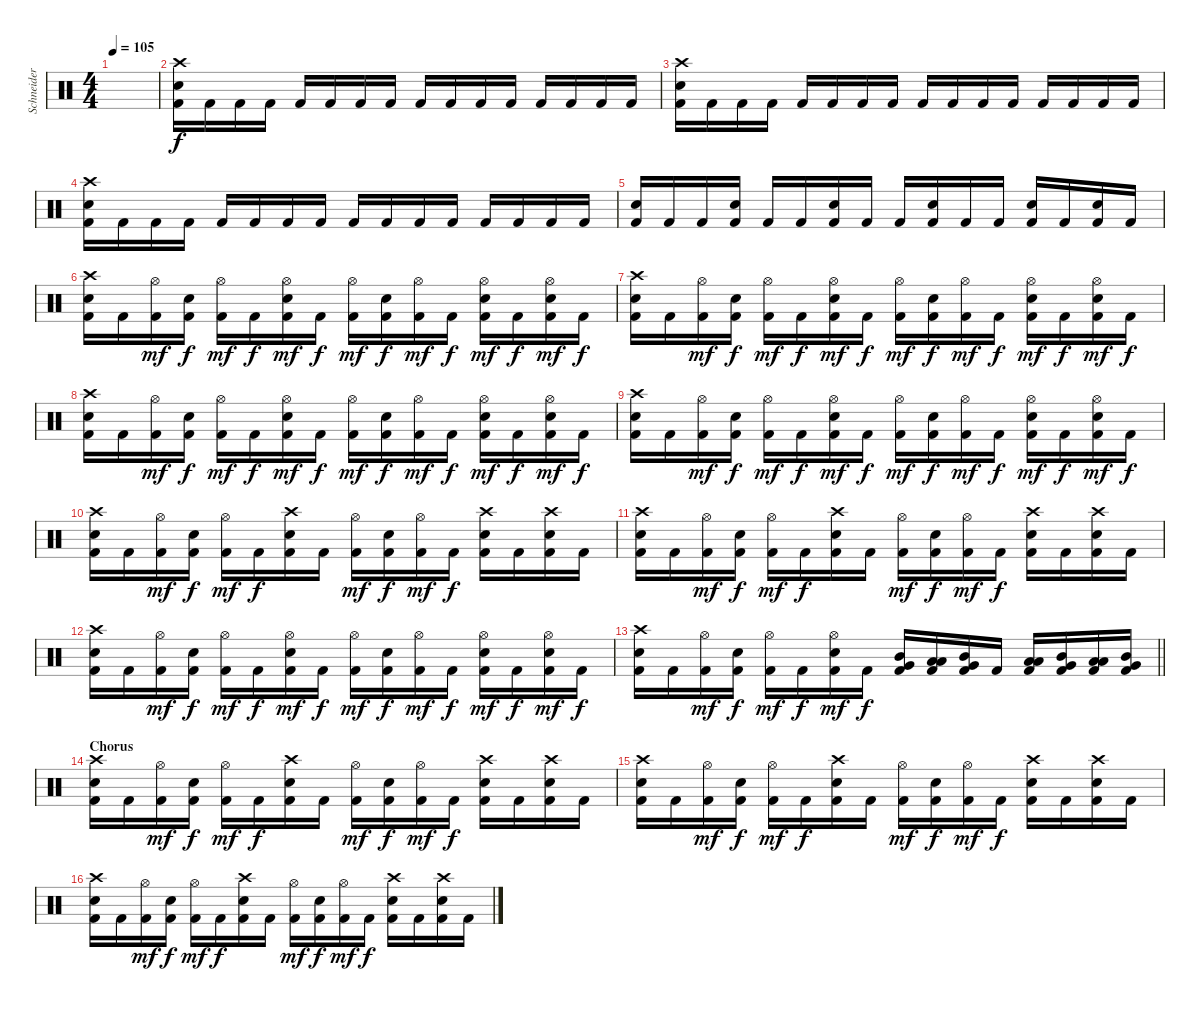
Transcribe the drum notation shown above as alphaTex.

\track ("Schneider" "Schneider") {instrument percussion}
\staff {score}
\articulation defaults
\ts (4 4)
\tempo 105
\clef neutral
\ks c
|
("Crash high (hit)" "Kick (hit) 2" "Electric Snare (hit)").16 "Kick (hit) 2".16 "Kick (hit) 2".16 "Kick (hit) 2".16 "Kick (hit) 2".16 "Kick (hit) 2".16 "Kick (hit) 2".16 "Kick (hit) 2".16 "Kick (hit) 2".16 "Kick (hit) 2".16 "Kick (hit) 2".16 "Kick (hit) 2".16 "Kick (hit) 2".16 "Kick (hit) 2".16 "Kick (hit) 2".16 "Kick (hit) 2".16 |
("Crash high (hit)" "Kick (hit) 2" "Electric Snare (hit)").16 "Kick (hit) 2".16 "Kick (hit) 2".16 "Kick (hit) 2".16 "Kick (hit) 2".16 "Kick (hit) 2".16 "Kick (hit) 2".16 "Kick (hit) 2".16 "Kick (hit) 2".16 "Kick (hit) 2".16 "Kick (hit) 2".16 "Kick (hit) 2".16 "Kick (hit) 2".16 "Kick (hit) 2".16 "Kick (hit) 2".16 "Kick (hit) 2".16 |
("Crash high (hit)" "Kick (hit) 2" "Electric Snare (hit)").16 "Kick (hit) 2".16 "Kick (hit) 2".16 "Kick (hit) 2".16 "Kick (hit) 2".16 "Kick (hit) 2".16 "Kick (hit) 2".16 "Kick (hit) 2".16 "Kick (hit) 2".16 "Kick (hit) 2".16 "Kick (hit) 2".16 "Kick (hit) 2".16 "Kick (hit) 2".16 "Kick (hit) 2".16 "Kick (hit) 2".16 "Kick (hit) 2".16 |
("Kick (hit) 2" "Electric Snare (hit)").16 "Kick (hit) 2".16 "Kick (hit) 2".16 ("Kick (hit) 2" "Electric Snare (hit)").16 "Kick (hit) 2".16 "Kick (hit) 2".16 ("Kick (hit) 2" "Electric Snare (hit)").16 "Kick (hit) 2".16 "Kick (hit) 2".16 ("Kick (hit) 2" "Electric Snare (hit)").16 "Kick (hit) 2".16 "Kick (hit) 2".16 ("Kick (hit) 2" "Electric Snare (hit)").16 "Kick (hit) 2".16 ("Kick (hit) 2" "Electric Snare (hit)").16 "Kick (hit) 2".16 |
("Crash high (hit)" "Kick (hit) 2" "Electric Snare (hit)").16 "Kick (hit) 2".16 ("Hi-Hat (open)" "Kick (hit) 2").16{dy mf} ("Kick (hit) 2" "Electric Snare (hit)").16{dy f} ("Hi-Hat (open)" "Kick (hit) 2").16{dy mf} "Kick (hit) 2".16{dy f} ("Hi-Hat (open)" "Kick (hit) 2" "Electric Snare (hit)").16{dy mf} "Kick (hit) 2".16{dy f} ("Hi-Hat (open)" "Kick (hit) 2").16{dy mf} ("Kick (hit) 2" "Electric Snare (hit)").16{dy f} ("Hi-Hat (open)" "Kick (hit) 2").16{dy mf} "Kick (hit) 2".16{dy f} ("Hi-Hat (open)" "Kick (hit) 2" "Electric Snare (hit)").16{dy mf} "Kick (hit) 2".16{dy f} ("Hi-Hat (open)" "Kick (hit) 2" "Electric Snare (hit)").16{dy mf} "Kick (hit) 2".16{dy f} |
("Crash high (hit)" "Kick (hit) 2" "Electric Snare (hit)").16 "Kick (hit) 2".16 ("Hi-Hat (open)" "Kick (hit) 2").16{dy mf} ("Kick (hit) 2" "Electric Snare (hit)").16{dy f} ("Hi-Hat (open)" "Kick (hit) 2").16{dy mf} "Kick (hit) 2".16{dy f} ("Hi-Hat (open)" "Kick (hit) 2" "Electric Snare (hit)").16{dy mf} "Kick (hit) 2".16{dy f} ("Hi-Hat (open)" "Kick (hit) 2").16{dy mf} ("Kick (hit) 2" "Electric Snare (hit)").16{dy f} ("Hi-Hat (open)" "Kick (hit) 2").16{dy mf} "Kick (hit) 2".16{dy f} ("Hi-Hat (open)" "Kick (hit) 2" "Electric Snare (hit)").16{dy mf} "Kick (hit) 2".16{dy f} ("Hi-Hat (open)" "Kick (hit) 2" "Electric Snare (hit)").16{dy mf} "Kick (hit) 2".16{dy f} |
("Crash high (hit)" "Kick (hit) 2" "Electric Snare (hit)").16 "Kick (hit) 2".16 ("Hi-Hat (open)" "Kick (hit) 2").16{dy mf} ("Kick (hit) 2" "Electric Snare (hit)").16{dy f} ("Hi-Hat (open)" "Kick (hit) 2").16{dy mf} "Kick (hit) 2".16{dy f} ("Hi-Hat (open)" "Kick (hit) 2" "Electric Snare (hit)").16{dy mf} "Kick (hit) 2".16{dy f} ("Hi-Hat (open)" "Kick (hit) 2").16{dy mf} ("Kick (hit) 2" "Electric Snare (hit)").16{dy f} ("Hi-Hat (open)" "Kick (hit) 2").16{dy mf} "Kick (hit) 2".16{dy f} ("Hi-Hat (open)" "Kick (hit) 2" "Electric Snare (hit)").16{dy mf} "Kick (hit) 2".16{dy f} ("Hi-Hat (open)" "Kick (hit) 2" "Electric Snare (hit)").16{dy mf} "Kick (hit) 2".16{dy f} |
("Crash high (hit)" "Kick (hit) 2" "Electric Snare (hit)").16 "Kick (hit) 2".16 ("Hi-Hat (open)" "Kick (hit) 2").16{dy mf} ("Kick (hit) 2" "Electric Snare (hit)").16{dy f} ("Hi-Hat (open)" "Kick (hit) 2").16{dy mf} "Kick (hit) 2".16{dy f} ("Hi-Hat (open)" "Kick (hit) 2" "Electric Snare (hit)").16{dy mf} "Kick (hit) 2".16{dy f} ("Hi-Hat (open)" "Kick (hit) 2").16{dy mf} ("Kick (hit) 2" "Electric Snare (hit)").16{dy f} ("Hi-Hat (open)" "Kick (hit) 2").16{dy mf} "Kick (hit) 2".16{dy f} ("Hi-Hat (open)" "Kick (hit) 2" "Electric Snare (hit)").16{dy mf} "Kick (hit) 2".16{dy f} ("Hi-Hat (open)" "Kick (hit) 2" "Electric Snare (hit)").16{dy mf} "Kick (hit) 2".16{dy f} |
("Crash high (hit)" "Kick (hit) 2" "Electric Snare (hit)").16 "Kick (hit) 2".16 ("Hi-Hat (open)" "Kick (hit) 2").16{dy mf} ("Kick (hit) 2" "Electric Snare (hit)").16{dy f} ("Hi-Hat (open)" "Kick (hit) 2").16{dy mf} "Kick (hit) 2".16{dy f} ("Crash high (hit)" "Kick (hit) 2" "Electric Snare (hit)").16 "Kick (hit) 2".16 ("Hi-Hat (open)" "Kick (hit) 2").16{dy mf} ("Kick (hit) 2" "Electric Snare (hit)").16{dy f} ("Hi-Hat (open)" "Kick (hit) 2").16{dy mf} "Kick (hit) 2".16{dy f} ("Crash high (hit)" "Kick (hit) 2" "Electric Snare (hit)").16 "Kick (hit) 2".16 ("Crash high (hit)" "Kick (hit) 2" "Electric Snare (hit)").16 "Kick (hit) 2".16 |
("Crash high (hit)" "Kick (hit) 2" "Electric Snare (hit)").16 "Kick (hit) 2".16 ("Hi-Hat (open)" "Kick (hit) 2").16{dy mf} ("Kick (hit) 2" "Electric Snare (hit)").16{dy f} ("Hi-Hat (open)" "Kick (hit) 2").16{dy mf} "Kick (hit) 2".16{dy f} ("Crash high (hit)" "Kick (hit) 2" "Electric Snare (hit)").16 "Kick (hit) 2".16 ("Hi-Hat (open)" "Kick (hit) 2").16{dy mf} ("Kick (hit) 2" "Electric Snare (hit)").16{dy f} ("Hi-Hat (open)" "Kick (hit) 2").16{dy mf} "Kick (hit) 2".16{dy f} ("Crash high (hit)" "Kick (hit) 2" "Electric Snare (hit)").16 "Kick (hit) 2".16 ("Crash high (hit)" "Kick (hit) 2" "Electric Snare (hit)").16 "Kick (hit) 2".16 |
("Crash high (hit)" "Kick (hit) 2" "Electric Snare (hit)").16 "Kick (hit) 2".16 ("Hi-Hat (open)" "Kick (hit) 2").16{dy mf} ("Kick (hit) 2" "Electric Snare (hit)").16{dy f} ("Hi-Hat (open)" "Kick (hit) 2").16{dy mf} "Kick (hit) 2".16{dy f} ("Hi-Hat (open)" "Kick (hit) 2" "Electric Snare (hit)").16{dy mf} "Kick (hit) 2".16{dy f} ("Hi-Hat (open)" "Kick (hit) 2").16{dy mf} ("Kick (hit) 2" "Electric Snare (hit)").16{dy f} ("Hi-Hat (open)" "Kick (hit) 2").16{dy mf} "Kick (hit) 2".16{dy f} ("Hi-Hat (open)" "Kick (hit) 2" "Electric Snare (hit)").16{dy mf} "Kick (hit) 2".16{dy f} ("Hi-Hat (open)" "Kick (hit) 2" "Electric Snare (hit)").16{dy mf} "Kick (hit) 2".16{dy f} |
\barLineRight lightlight
("Crash high (hit)" "Kick (hit) 2" "Electric Snare (hit)").16 "Kick (hit) 2".16 ("Hi-Hat (open)" "Kick (hit) 2").16{dy mf} ("Kick (hit) 2" "Electric Snare (hit)").16{dy f} ("Hi-Hat (open)" "Kick (hit) 2").16{dy mf} "Kick (hit) 2".16{dy f} ("Hi-Hat (open)" "Kick (hit) 2" "Electric Snare (hit)").16{dy mf} "Kick (hit) 2".16{dy f} ("Kick (hit) 2" "Mid Tom (hit)" "Very Low Tom (hit)").16 ("Kick (hit) 2" "Low Tom (hit)" "Low Floor Tom (hit)").16 ("Kick (hit) 2" "Mid Tom (hit)" "Very Low Tom (hit)").16 "Kick (hit) 2".16 ("Kick (hit) 2" "Low Tom (hit)" "Low Floor Tom (hit)").16 ("Kick (hit) 2" "Mid Tom (hit)" "Very Low Tom (hit)").16 ("Kick (hit) 2" "Low Tom (hit)" "Low Floor Tom (hit)").16 ("Kick (hit) 2" "Mid Tom (hit)" "Very Low Tom (hit)").16 |
\section ("" "Chorus")
("Crash high (hit)" "Kick (hit) 2" "Electric Snare (hit)").16 "Kick (hit) 2".16 ("Hi-Hat (open)" "Kick (hit) 2").16{dy mf} ("Kick (hit) 2" "Electric Snare (hit)").16{dy f} ("Hi-Hat (open)" "Kick (hit) 2").16{dy mf} "Kick (hit) 2".16{dy f} ("Crash high (hit)" "Kick (hit) 2" "Electric Snare (hit)").16 "Kick (hit) 2".16 ("Hi-Hat (open)" "Kick (hit) 2").16{dy mf} ("Kick (hit) 2" "Electric Snare (hit)").16{dy f} ("Hi-Hat (open)" "Kick (hit) 2").16{dy mf} "Kick (hit) 2".16{dy f} ("Crash high (hit)" "Kick (hit) 2" "Electric Snare (hit)").16 "Kick (hit) 2".16 ("Crash high (hit)" "Kick (hit) 2" "Electric Snare (hit)").16 "Kick (hit) 2".16 |
("Crash high (hit)" "Kick (hit) 2" "Electric Snare (hit)").16 "Kick (hit) 2".16 ("Hi-Hat (open)" "Kick (hit) 2").16{dy mf} ("Kick (hit) 2" "Electric Snare (hit)").16{dy f} ("Hi-Hat (open)" "Kick (hit) 2").16{dy mf} "Kick (hit) 2".16{dy f} ("Crash high (hit)" "Kick (hit) 2" "Electric Snare (hit)").16 "Kick (hit) 2".16 ("Hi-Hat (open)" "Kick (hit) 2").16{dy mf} ("Kick (hit) 2" "Electric Snare (hit)").16{dy f} ("Hi-Hat (open)" "Kick (hit) 2").16{dy mf} "Kick (hit) 2".16{dy f} ("Crash high (hit)" "Kick (hit) 2" "Electric Snare (hit)").16 "Kick (hit) 2".16 ("Crash high (hit)" "Kick (hit) 2" "Electric Snare (hit)").16 "Kick (hit) 2".16 |
("Crash high (hit)" "Kick (hit) 2" "Electric Snare (hit)").16 "Kick (hit) 2".16 ("Hi-Hat (open)" "Kick (hit) 2").16{dy mf} ("Kick (hit) 2" "Electric Snare (hit)").16{dy f} ("Hi-Hat (open)" "Kick (hit) 2").16{dy mf} "Kick (hit) 2".16{dy f} ("Crash high (hit)" "Kick (hit) 2" "Electric Snare (hit)").16 "Kick (hit) 2".16 ("Hi-Hat (open)" "Kick (hit) 2").16{dy mf} ("Kick (hit) 2" "Electric Snare (hit)").16{dy f} ("Hi-Hat (open)" "Kick (hit) 2").16{dy mf} "Kick (hit) 2".16{dy f} ("Crash high (hit)" "Kick (hit) 2" "Electric Snare (hit)").16 "Kick (hit) 2".16 ("Crash high (hit)" "Kick (hit) 2" "Electric Snare (hit)").16 "Kick (hit) 2".16
